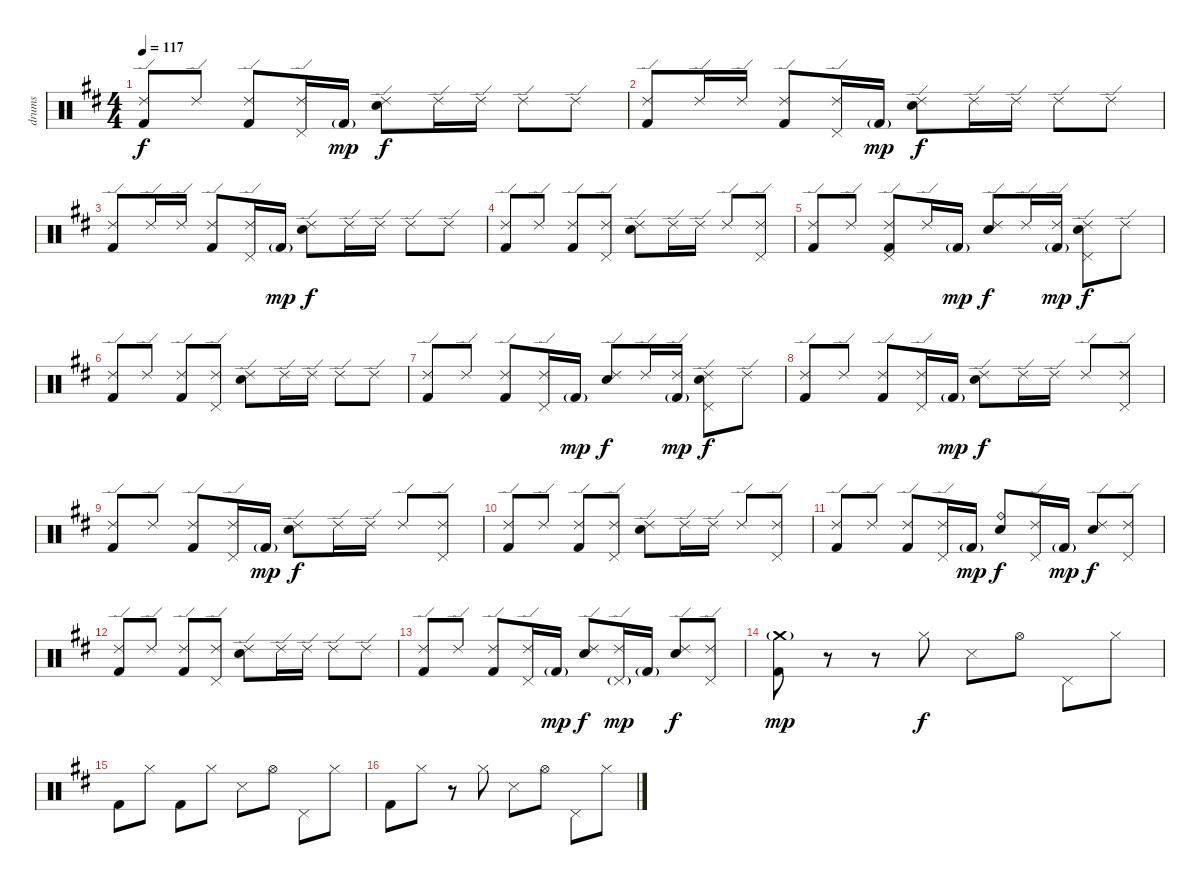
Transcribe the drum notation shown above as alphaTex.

\track ("drums" "drums") {instrument percussion}
\staff {score}
\articulation defaults
\ts (4 4)
\tempo 117
\clef neutral
\ks d
("Ride (edge) 2" "Kick (hit) 2").8{dy f} "Ride (edge) 2".8 ("Ride (edge) 2" "Kick (hit) 2").8 ("Ride (edge) 2" "Pedal Hi-Hat (hit)").16 "Kick (hit) 2"{g}.16{dy mp} ("Ride (edge) 2" "Electric Snare (hit)").8{dy f} "Ride (edge) 2".16 "Ride (edge) 2".16 "Ride (edge) 2".8 "Ride (edge) 2".8 |
("Ride (edge) 2" "Kick (hit) 2").8 "Ride (edge) 2".16 "Ride (edge) 2".16 ("Ride (edge) 2" "Kick (hit) 2").8 ("Ride (edge) 2" "Pedal Hi-Hat (hit)").16 "Kick (hit) 2"{g}.16{dy mp} ("Ride (edge) 2" "Electric Snare (hit)").8{dy f} "Ride (edge) 2".16 "Ride (edge) 2".16 "Ride (edge) 2".8 "Ride (edge) 2".8 |
("Ride (edge) 2" "Kick (hit) 2").8 "Ride (edge) 2".16 "Ride (edge) 2".16 ("Ride (edge) 2" "Kick (hit) 2").8 ("Ride (edge) 2" "Pedal Hi-Hat (hit)").16 "Kick (hit) 2"{g}.16{dy mp} ("Ride (edge) 2" "Electric Snare (hit)").8{dy f} "Ride (edge) 2".16 "Ride (edge) 2".16 "Ride (edge) 2".8 "Ride (edge) 2".8 |
("Ride (edge) 2" "Kick (hit) 2").8 "Ride (edge) 2".8 ("Ride (edge) 2" "Kick (hit) 2").8 ("Ride (edge) 2" "Pedal Hi-Hat (hit)").8 ("Ride (edge) 2" "Electric Snare (hit)").8 "Ride (edge) 2".16 "Ride (edge) 2".16 "Ride (edge) 2".8 ("Ride (edge) 2" "Pedal Hi-Hat (hit)").8 |
("Ride (edge) 2" "Kick (hit) 2").8 "Ride (edge) 2".8 ("Ride (edge) 2" "Pedal Hi-Hat (hit)" "Kick (hit) 2").8 "Ride (edge) 2".16 "Kick (hit) 2"{g}.16{dy mp} ("Ride (edge) 2" "Electric Snare (hit)").8{dy f} "Ride (edge) 2".16 ("Ride (edge) 2" "Kick (hit) 2"{g}).16{dy mp} ("Ride (edge) 2" "Pedal Hi-Hat (hit)" "Electric Snare (hit)").8{dy f} "Ride (edge) 2".8 |
("Ride (edge) 2" "Kick (hit) 2").8 "Ride (edge) 2".8 ("Ride (edge) 2" "Kick (hit) 2").8 ("Ride (edge) 2" "Pedal Hi-Hat (hit)").8 ("Ride (edge) 2" "Electric Snare (hit)").8 "Ride (edge) 2".16 "Ride (edge) 2".16 "Ride (edge) 2".8 "Ride (edge) 2".8 |
("Ride (edge) 2" "Kick (hit) 2").8 "Ride (edge) 2".8 ("Ride (edge) 2" "Kick (hit) 2").8 ("Ride (edge) 2" "Pedal Hi-Hat (hit)").16 "Kick (hit) 2"{g}.16{dy mp} ("Ride (edge) 2" "Electric Snare (hit)").8{dy f} "Ride (edge) 2".16 ("Ride (edge) 2" "Kick (hit) 2"{g}).16{dy mp} ("Ride (edge) 2" "Pedal Hi-Hat (hit)" "Electric Snare (hit)").8{dy f} "Ride (edge) 2".8 |
("Ride (edge) 2" "Kick (hit) 2").8 "Ride (edge) 2".8 ("Ride (edge) 2" "Kick (hit) 2").8 ("Ride (edge) 2" "Pedal Hi-Hat (hit)").16 "Kick (hit) 2"{g}.16{dy mp} ("Ride (edge) 2" "Electric Snare (hit)").8{dy f} "Ride (edge) 2".16 "Ride (edge) 2".16 "Ride (edge) 2".8 ("Ride (edge) 2" "Pedal Hi-Hat (hit)").8 |
("Ride (edge) 2" "Kick (hit) 2").8 "Ride (edge) 2".8 ("Ride (edge) 2" "Kick (hit) 2").8 ("Ride (edge) 2" "Pedal Hi-Hat (hit)").16 "Kick (hit) 2"{g}.16{dy mp} ("Ride (edge) 2" "Electric Snare (hit)").8{dy f} "Ride (edge) 2".16 "Ride (edge) 2".16 "Ride (edge) 2".8 ("Ride (edge) 2" "Pedal Hi-Hat (hit)").8 |
("Ride (edge) 2" "Kick (hit) 2").8 "Ride (edge) 2".8 ("Ride (edge) 2" "Kick (hit) 2").8 ("Ride (edge) 2" "Pedal Hi-Hat (hit)").8 ("Ride (edge) 2" "Electric Snare (hit)").8 "Ride (edge) 2".16 "Ride (edge) 2".16 "Ride (edge) 2".8 ("Ride (edge) 2" "Pedal Hi-Hat (hit)").8 |
("Ride (edge) 2" "Kick (hit) 2").8 "Ride (edge) 2".8 ("Ride (edge) 2" "Kick (hit) 2").8 ("Ride (edge) 2" "Pedal Hi-Hat (hit)").16 "Kick (hit) 2"{g}.16{dy mp} ("Ride (bell)" "Electric Snare (hit)").8{dy f} ("Ride (edge) 2" "Pedal Hi-Hat (hit)").16 "Kick (hit) 2"{g}.16{dy mp} ("Ride (edge) 2" "Electric Snare (hit)").8{dy f} ("Ride (edge) 2" "Pedal Hi-Hat (hit)").8 |
("Ride (edge) 2" "Kick (hit) 2").8 "Ride (edge) 2".8 ("Ride (edge) 2" "Kick (hit) 2").8 ("Ride (edge) 2" "Pedal Hi-Hat (hit)").8 ("Ride (edge) 2" "Electric Snare (hit)").8 "Ride (edge) 2".16 "Ride (edge) 2".16 "Ride (edge) 2".8 "Ride (edge) 2".8 |
("Ride (edge) 2" "Kick (hit) 2").8 "Ride (edge) 2".8 ("Ride (edge) 2" "Kick (hit) 2").8 ("Ride (edge) 2" "Pedal Hi-Hat (hit)").16 "Kick (hit) 2"{g}.16{dy mp} ("Ride (edge) 2" "Electric Snare (hit)").8{dy f} ("Ride (edge) 2" "Pedal Hi-Hat (hit)"{g}).16{dy mp} "Kick (hit) 2"{g}.16 ("Ride (edge) 2" "Electric Snare (hit)").8{dy f} ("Ride (edge) 2" "Pedal Hi-Hat (hit)").8 |
("Crash medium (hit)"{g} "Kick (hit) 2").8{dy mp} r.8 r.8 "Hi-Hat (closed)".8{dy f} "Snare (side stick) 3".8 "Hi-Hat (open)".8 "Pedal Hi-Hat (hit)".8 "Hi-Hat (closed)".8 |
"Kick (hit) 2".8 "Hi-Hat (closed)".8 "Kick (hit) 2".8 "Hi-Hat (closed)".8 "Snare (side stick) 3".8 "Hi-Hat (open)".8 "Pedal Hi-Hat (hit)".8 "Hi-Hat (closed)".8 |
"Kick (hit) 2".8 "Hi-Hat (closed)".8 r.8 "Hi-Hat (closed)".8 "Snare (side stick) 3".8 "Hi-Hat (open)".8 "Pedal Hi-Hat (hit)".8 "Hi-Hat (closed)".8
